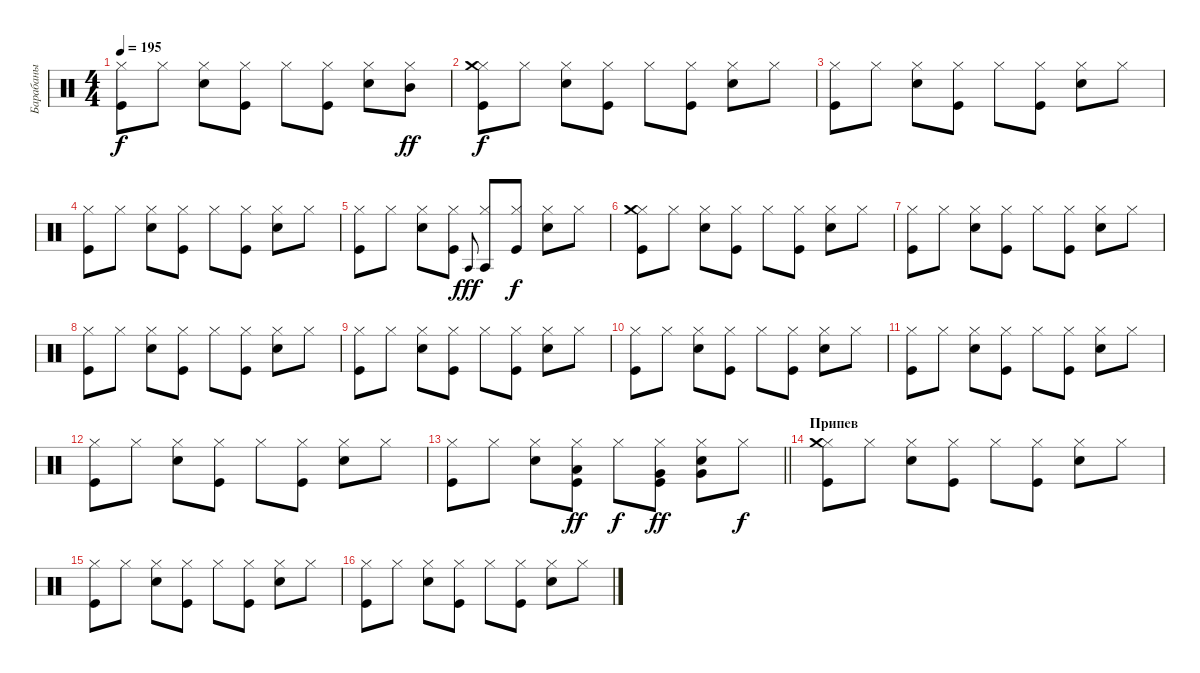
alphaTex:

\track ("Барабаны" "Барабаны") {instrument percussion}
\staff {score}
\articulation defaults
\ts (4 4)
\tempo 195
\clef neutral
\ks c
("Kick (hit)" "Hi-Hat (closed)").8{dy f} "Hi-Hat (closed)".8 ("Snare (hit) 2" "Hi-Hat (closed)").8 ("Kick (hit)" "Hi-Hat (closed)").8 "Hi-Hat (closed)".8 ("Kick (hit)" "Hi-Hat (closed)").8 ("Snare (hit) 2" "Hi-Hat (closed)").8 ("Hi-Hat (closed)" "Mid Tom (hit)").8{dy ff} |
("Kick (hit)" "Hi-Hat (closed)" "Crash medium (hit)").8{dy f} "Hi-Hat (closed)".8 ("Snare (hit) 2" "Hi-Hat (closed)").8 ("Kick (hit)" "Hi-Hat (closed)").8 "Hi-Hat (closed)".8 ("Kick (hit)" "Hi-Hat (closed)").8 ("Snare (hit) 2" "Hi-Hat (closed)").8 "Hi-Hat (closed)".8 |
("Kick (hit)" "Hi-Hat (closed)").8 "Hi-Hat (closed)".8 ("Snare (hit) 2" "Hi-Hat (closed)").8 ("Kick (hit)" "Hi-Hat (closed)").8 "Hi-Hat (closed)".8 ("Kick (hit)" "Hi-Hat (closed)").8 ("Snare (hit) 2" "Hi-Hat (closed)").8 "Hi-Hat (closed)".8 |
("Kick (hit)" "Hi-Hat (closed)").8 "Hi-Hat (closed)".8 ("Snare (hit) 2" "Hi-Hat (closed)").8 ("Kick (hit)" "Hi-Hat (closed)").8 "Hi-Hat (closed)".8 ("Kick (hit)" "Hi-Hat (closed)").8 ("Snare (hit) 2" "Hi-Hat (closed)").8 "Hi-Hat (closed)".8 |
("Kick (hit)" "Hi-Hat (closed)").8 "Hi-Hat (closed)".8 ("Snare (hit) 2" "Hi-Hat (closed)").8 ("Kick (hit)" "Hi-Hat (closed)").8 "Agogo tow (hit)".8{gr onbeat dy fff} ("Hi-Hat (closed)" "Agogo tow (hit)").8 ("Kick (hit)" "Hi-Hat (closed)").8{dy f} ("Snare (hit) 2" "Hi-Hat (closed)").8 "Hi-Hat (closed)".8 |
("Kick (hit)" "Hi-Hat (closed)" "Crash medium (hit)").8 "Hi-Hat (closed)".8 ("Snare (hit) 2" "Hi-Hat (closed)").8 ("Kick (hit)" "Hi-Hat (closed)").8 "Hi-Hat (closed)".8 ("Kick (hit)" "Hi-Hat (closed)").8 ("Snare (hit) 2" "Hi-Hat (closed)").8 "Hi-Hat (closed)".8 |
("Kick (hit)" "Hi-Hat (closed)").8 "Hi-Hat (closed)".8 ("Snare (hit) 2" "Hi-Hat (closed)").8 ("Kick (hit)" "Hi-Hat (closed)").8 "Hi-Hat (closed)".8 ("Kick (hit)" "Hi-Hat (closed)").8 ("Snare (hit) 2" "Hi-Hat (closed)").8 "Hi-Hat (closed)".8 |
("Kick (hit)" "Hi-Hat (closed)").8 "Hi-Hat (closed)".8 ("Snare (hit) 2" "Hi-Hat (closed)").8 ("Kick (hit)" "Hi-Hat (closed)").8 "Hi-Hat (closed)".8 ("Kick (hit)" "Hi-Hat (closed)").8 ("Snare (hit) 2" "Hi-Hat (closed)").8 "Hi-Hat (closed)".8 |
("Kick (hit)" "Hi-Hat (closed)").8 "Hi-Hat (closed)".8 ("Snare (hit) 2" "Hi-Hat (closed)").8 ("Kick (hit)" "Hi-Hat (closed)").8 "Hi-Hat (closed)".8 ("Kick (hit)" "Hi-Hat (closed)").8 ("Snare (hit) 2" "Hi-Hat (closed)").8 "Hi-Hat (closed)".8 |
("Kick (hit)" "Hi-Hat (closed)").8 "Hi-Hat (closed)".8 ("Snare (hit) 2" "Hi-Hat (closed)").8 ("Kick (hit)" "Hi-Hat (closed)").8 "Hi-Hat (closed)".8 ("Kick (hit)" "Hi-Hat (closed)").8 ("Snare (hit) 2" "Hi-Hat (closed)").8 "Hi-Hat (closed)".8 |
("Kick (hit)" "Hi-Hat (closed)").8 "Hi-Hat (closed)".8 ("Snare (hit) 2" "Hi-Hat (closed)").8 ("Kick (hit)" "Hi-Hat (closed)").8 "Hi-Hat (closed)".8 ("Kick (hit)" "Hi-Hat (closed)").8 ("Snare (hit) 2" "Hi-Hat (closed)").8 "Hi-Hat (closed)".8 |
("Kick (hit)" "Hi-Hat (closed)").8 "Hi-Hat (closed)".8 ("Snare (hit) 2" "Hi-Hat (closed)").8 ("Kick (hit)" "Hi-Hat (closed)").8 "Hi-Hat (closed)".8 ("Kick (hit)" "Hi-Hat (closed)").8 ("Snare (hit) 2" "Hi-Hat (closed)").8 "Hi-Hat (closed)".8 |
\barLineRight lightlight
("Kick (hit)" "Hi-Hat (closed)").8 "Hi-Hat (closed)".8 ("Snare (hit) 2" "Hi-Hat (closed)").8 ("Kick (hit)" "Hi-Hat (closed)" "Low Tom (hit)").8{dy ff} "Hi-Hat (closed)".8{dy f} ("Kick (hit)" "Hi-Hat (closed)" "Very Low Tom (hit)").8{dy ff} ("Snare (hit) 2" "Hi-Hat (closed)" "Very Low Tom (hit)").8 "Hi-Hat (closed)".8{dy f} |
\section ("" "Припев")
("Kick (hit)" "Hi-Hat (closed)" "Crash medium (hit)").8 "Hi-Hat (closed)".8 ("Snare (hit) 2" "Hi-Hat (closed)").8 ("Kick (hit)" "Hi-Hat (closed)").8 "Hi-Hat (closed)".8 ("Kick (hit)" "Hi-Hat (closed)").8 ("Snare (hit) 2" "Hi-Hat (closed)").8 "Hi-Hat (closed)".8 |
("Kick (hit)" "Hi-Hat (closed)").8 "Hi-Hat (closed)".8 ("Snare (hit) 2" "Hi-Hat (closed)").8 ("Kick (hit)" "Hi-Hat (closed)").8 "Hi-Hat (closed)".8 ("Kick (hit)" "Hi-Hat (closed)").8 ("Snare (hit) 2" "Hi-Hat (closed)").8 "Hi-Hat (closed)".8 |
("Kick (hit)" "Hi-Hat (closed)").8 "Hi-Hat (closed)".8 ("Snare (hit) 2" "Hi-Hat (closed)").8 ("Kick (hit)" "Hi-Hat (closed)").8 "Hi-Hat (closed)".8 ("Kick (hit)" "Hi-Hat (closed)").8 ("Snare (hit) 2" "Hi-Hat (closed)").8 "Hi-Hat (closed)".8
